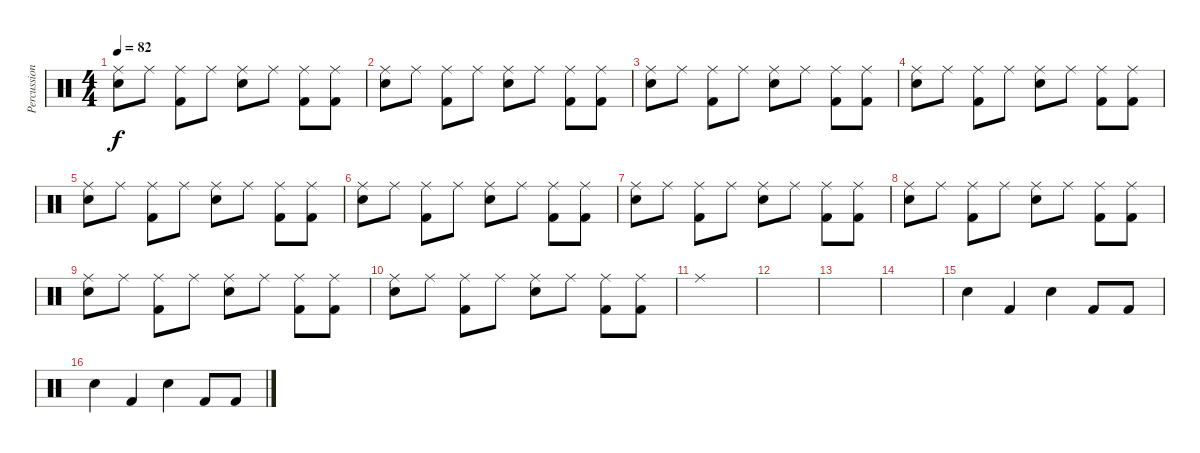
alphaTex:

\track ("Percussions" "Percussion") {instrument percussion}
\staff {score}
\articulation defaults
\ts (4 4)
\tempo 82
\clef neutral
\ks c
("Ride (middle)" "Snare (hit) 2").8{dy f} "Ride (middle)".8 ("Ride (middle)" "Kick (hit) 2").8 "Ride (middle)".8 ("Ride (middle)" "Snare (hit) 2").8 "Ride (middle)".8 ("Ride (middle)" "Kick (hit) 2").8 ("Ride (middle)" "Kick (hit) 2").8 |
("Ride (middle)" "Snare (hit) 2").8 "Ride (middle)".8 ("Ride (middle)" "Kick (hit) 2").8 "Ride (middle)".8 ("Ride (middle)" "Snare (hit) 2").8 "Ride (middle)".8 ("Ride (middle)" "Kick (hit) 2").8 ("Ride (middle)" "Kick (hit) 2").8 |
("Ride (middle)" "Snare (hit) 2").8 "Ride (middle)".8 ("Ride (middle)" "Kick (hit) 2").8 "Ride (middle)".8 ("Ride (middle)" "Snare (hit) 2").8 "Ride (middle)".8 ("Ride (middle)" "Kick (hit) 2").8 ("Ride (middle)" "Kick (hit) 2").8 |
("Ride (middle)" "Snare (hit) 2").8 "Ride (middle)".8 ("Ride (middle)" "Kick (hit) 2").8 "Ride (middle)".8 ("Ride (middle)" "Snare (hit) 2").8 "Ride (middle)".8 ("Ride (middle)" "Kick (hit) 2").8 ("Ride (middle)" "Kick (hit) 2").8 |
("Ride (middle)" "Snare (hit) 2").8 "Ride (middle)".8 ("Ride (middle)" "Kick (hit) 2").8 "Ride (middle)".8 ("Ride (middle)" "Snare (hit) 2").8 "Ride (middle)".8 ("Ride (middle)" "Kick (hit) 2").8 ("Ride (middle)" "Kick (hit) 2").8 |
("Ride (middle)" "Snare (hit) 2").8 "Ride (middle)".8 ("Ride (middle)" "Kick (hit) 2").8 "Ride (middle)".8 ("Ride (middle)" "Snare (hit) 2").8 "Ride (middle)".8 ("Ride (middle)" "Kick (hit) 2").8 ("Ride (middle)" "Kick (hit) 2").8 |
("Ride (middle)" "Snare (hit) 2").8 "Ride (middle)".8 ("Ride (middle)" "Kick (hit) 2").8 "Ride (middle)".8 ("Ride (middle)" "Snare (hit) 2").8 "Ride (middle)".8 ("Ride (middle)" "Kick (hit) 2").8 ("Ride (middle)" "Kick (hit) 2").8 |
("Ride (middle)" "Snare (hit) 2").8 "Ride (middle)".8 ("Ride (middle)" "Kick (hit) 2").8 "Ride (middle)".8 ("Ride (middle)" "Snare (hit) 2").8 "Ride (middle)".8 ("Ride (middle)" "Kick (hit) 2").8 ("Ride (middle)" "Kick (hit) 2").8 |
("Ride (middle)" "Snare (hit) 2").8 "Ride (middle)".8 ("Ride (middle)" "Kick (hit) 2").8 "Ride (middle)".8 ("Ride (middle)" "Snare (hit) 2").8 "Ride (middle)".8 ("Ride (middle)" "Kick (hit) 2").8 ("Ride (middle)" "Kick (hit) 2").8 |
("Ride (middle)" "Snare (hit) 2").8 "Ride (middle)".8 ("Ride (middle)" "Kick (hit) 2").8 "Ride (middle)".8 ("Ride (middle)" "Snare (hit) 2").8 "Ride (middle)".8 ("Ride (middle)" "Kick (hit) 2").8 ("Ride (middle)" "Kick (hit) 2").8 |
"Ride (middle)".1 |
|
|
|
"Snare (hit) 2".4 "Kick (hit) 2".4 "Snare (hit) 2".4 "Kick (hit) 2".8 "Kick (hit) 2".8 |
"Snare (hit) 2".4 "Kick (hit) 2".4 "Snare (hit) 2".4 "Kick (hit) 2".8 "Kick (hit) 2".8
